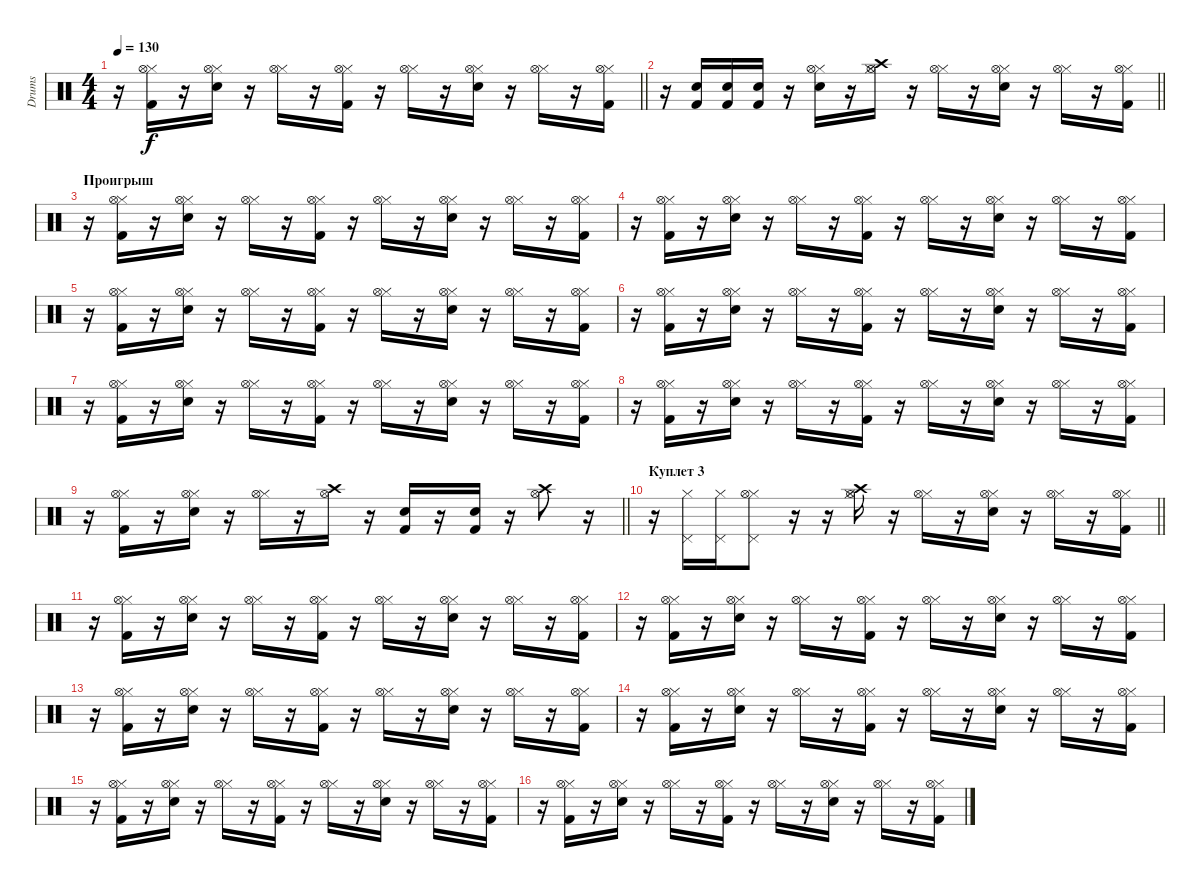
\track ("Drums" "Drums") {instrument percussion}
\staff {score}
\articulation defaults
\ts (4 4)
\tempo 130
\clef neutral
\barLineRight lightlight
\ks c
r.16{dy f} ("Kick (hit) 2" "Hi-Hat (closed)" "Hi-Hat (open)").16 r.16 ("Snare (hit) 2" "Hi-Hat (closed)" "Hi-Hat (open)").16 r.16 ("Hi-Hat (closed)" "Hi-Hat (open)").16 r.16 ("Kick (hit) 2" "Hi-Hat (closed)" "Hi-Hat (open)").16 r.16 ("Hi-Hat (closed)" "Hi-Hat (open)").16 r.16 ("Snare (hit) 2" "Hi-Hat (closed)" "Hi-Hat (open)").16 r.16 ("Hi-Hat (closed)" "Hi-Hat (open)").16 r.16 ("Kick (hit) 2" "Hi-Hat (closed)" "Hi-Hat (open)").16 |
\barLineRight lightlight
r.16 ("Snare (hit) 2" "Kick (hit) 2").16 ("Snare (hit) 2" "Kick (hit) 2").16 ("Snare (hit) 2" "Kick (hit) 2").16 r.16 ("Snare (hit) 2" "Hi-Hat (closed)" "Hi-Hat (open)").16 r.16 ("Crash high (hit)" "Hi-Hat (closed)" "Hi-Hat (open)").16 r.16 ("Hi-Hat (closed)" "Hi-Hat (open)").16 r.16 ("Snare (hit) 2" "Hi-Hat (closed)" "Hi-Hat (open)").16 r.16 ("Hi-Hat (closed)" "Hi-Hat (open)").16 r.16 ("Kick (hit) 2" "Hi-Hat (closed)" "Hi-Hat (open)").16 |
\section ("" "Проигрыш")
r.16 ("Kick (hit) 2" "Hi-Hat (closed)" "Hi-Hat (open)").16 r.16 ("Snare (hit) 2" "Hi-Hat (closed)" "Hi-Hat (open)").16 r.16 ("Hi-Hat (closed)" "Hi-Hat (open)").16 r.16 ("Kick (hit) 2" "Hi-Hat (closed)" "Hi-Hat (open)").16 r.16 ("Hi-Hat (closed)" "Hi-Hat (open)").16 r.16 ("Snare (hit) 2" "Hi-Hat (closed)" "Hi-Hat (open)").16 r.16 ("Hi-Hat (closed)" "Hi-Hat (open)").16 r.16 ("Kick (hit) 2" "Hi-Hat (closed)" "Hi-Hat (open)").16 |
r.16 ("Kick (hit) 2" "Hi-Hat (closed)" "Hi-Hat (open)").16 r.16 ("Snare (hit) 2" "Hi-Hat (closed)" "Hi-Hat (open)").16 r.16 ("Hi-Hat (closed)" "Hi-Hat (open)").16 r.16 ("Kick (hit) 2" "Hi-Hat (closed)" "Hi-Hat (open)").16 r.16 ("Hi-Hat (closed)" "Hi-Hat (open)").16 r.16 ("Snare (hit) 2" "Hi-Hat (closed)" "Hi-Hat (open)").16 r.16 ("Hi-Hat (closed)" "Hi-Hat (open)").16 r.16 ("Kick (hit) 2" "Hi-Hat (closed)" "Hi-Hat (open)").16 |
r.16 ("Kick (hit) 2" "Hi-Hat (closed)" "Hi-Hat (open)").16 r.16 ("Snare (hit) 2" "Hi-Hat (closed)" "Hi-Hat (open)").16 r.16 ("Hi-Hat (closed)" "Hi-Hat (open)").16 r.16 ("Kick (hit) 2" "Hi-Hat (closed)" "Hi-Hat (open)").16 r.16 ("Hi-Hat (closed)" "Hi-Hat (open)").16 r.16 ("Snare (hit) 2" "Hi-Hat (closed)" "Hi-Hat (open)").16 r.16 ("Hi-Hat (closed)" "Hi-Hat (open)").16 r.16 ("Kick (hit) 2" "Hi-Hat (closed)" "Hi-Hat (open)").16 |
r.16 ("Kick (hit) 2" "Hi-Hat (closed)" "Hi-Hat (open)").16 r.16 ("Snare (hit) 2" "Hi-Hat (closed)" "Hi-Hat (open)").16 r.16 ("Hi-Hat (closed)" "Hi-Hat (open)").16 r.16 ("Kick (hit) 2" "Hi-Hat (closed)" "Hi-Hat (open)").16 r.16 ("Hi-Hat (closed)" "Hi-Hat (open)").16 r.16 ("Snare (hit) 2" "Hi-Hat (closed)" "Hi-Hat (open)").16 r.16 ("Hi-Hat (closed)" "Hi-Hat (open)").16 r.16 ("Kick (hit) 2" "Hi-Hat (closed)" "Hi-Hat (open)").16 |
r.16 ("Kick (hit) 2" "Hi-Hat (closed)" "Hi-Hat (open)").16 r.16 ("Snare (hit) 2" "Hi-Hat (closed)" "Hi-Hat (open)").16 r.16 ("Hi-Hat (closed)" "Hi-Hat (open)").16 r.16 ("Kick (hit) 2" "Hi-Hat (closed)" "Hi-Hat (open)").16 r.16 ("Hi-Hat (closed)" "Hi-Hat (open)").16 r.16 ("Snare (hit) 2" "Hi-Hat (closed)" "Hi-Hat (open)").16 r.16 ("Hi-Hat (closed)" "Hi-Hat (open)").16 r.16 ("Kick (hit) 2" "Hi-Hat (closed)" "Hi-Hat (open)").16 |
r.16 ("Kick (hit) 2" "Hi-Hat (closed)" "Hi-Hat (open)").16 r.16 ("Snare (hit) 2" "Hi-Hat (closed)" "Hi-Hat (open)").16 r.16 ("Hi-Hat (closed)" "Hi-Hat (open)").16 r.16 ("Kick (hit) 2" "Hi-Hat (closed)" "Hi-Hat (open)").16 r.16 ("Hi-Hat (closed)" "Hi-Hat (open)").16 r.16 ("Snare (hit) 2" "Hi-Hat (closed)" "Hi-Hat (open)").16 r.16 ("Hi-Hat (closed)" "Hi-Hat (open)").16 r.16 ("Kick (hit) 2" "Hi-Hat (closed)" "Hi-Hat (open)").16 |
\barLineRight lightlight
r.16 ("Kick (hit) 2" "Hi-Hat (closed)" "Hi-Hat (open)").16 r.16 ("Snare (hit) 2" "Hi-Hat (closed)" "Hi-Hat (open)").16 r.16 ("Hi-Hat (closed)" "Hi-Hat (open)").16 r.16 ("Crash high (hit)" "Hi-Hat (open)").16 r.16 ("Snare (hit) 2" "Kick (hit) 2").16 r.16 ("Snare (hit) 2" "Kick (hit) 2").16 r.16 ("Crash high (hit)" "Hi-Hat (open)").8 r.16 |
\section ("" "Куплет 3")
\barLineRight lightlight
r.16 ("Hi-Hat (closed)" "Pedal Hi-Hat (hit)").16 ("Hi-Hat (closed)" "Pedal Hi-Hat (hit)").16 ("Pedal Hi-Hat (hit)" "Hi-Hat (closed)" "Hi-Hat (open)").8 r.16 r.16 ("Crash high (hit)" "Hi-Hat (closed)" "Hi-Hat (open)").16 r.16 ("Hi-Hat (closed)" "Hi-Hat (open)").16 r.16 ("Snare (hit) 2" "Hi-Hat (closed)" "Hi-Hat (open)").16 r.16 ("Hi-Hat (closed)" "Hi-Hat (open)").16 r.16 ("Kick (hit) 2" "Hi-Hat (closed)" "Hi-Hat (open)").16 |
\section ("" "")
r.16 ("Kick (hit) 2" "Hi-Hat (closed)" "Hi-Hat (open)").16 r.16 ("Snare (hit) 2" "Hi-Hat (closed)" "Hi-Hat (open)").16 r.16 ("Hi-Hat (closed)" "Hi-Hat (open)").16 r.16 ("Kick (hit) 2" "Hi-Hat (closed)" "Hi-Hat (open)").16 r.16 ("Hi-Hat (closed)" "Hi-Hat (open)").16 r.16 ("Snare (hit) 2" "Hi-Hat (closed)" "Hi-Hat (open)").16 r.16 ("Hi-Hat (closed)" "Hi-Hat (open)").16 r.16 ("Kick (hit) 2" "Hi-Hat (closed)" "Hi-Hat (open)").16 |
r.16 ("Kick (hit) 2" "Hi-Hat (closed)" "Hi-Hat (open)").16 r.16 ("Snare (hit) 2" "Hi-Hat (closed)" "Hi-Hat (open)").16 r.16 ("Hi-Hat (closed)" "Hi-Hat (open)").16 r.16 ("Kick (hit) 2" "Hi-Hat (closed)" "Hi-Hat (open)").16 r.16 ("Hi-Hat (closed)" "Hi-Hat (open)").16 r.16 ("Snare (hit) 2" "Hi-Hat (closed)" "Hi-Hat (open)").16 r.16 ("Hi-Hat (closed)" "Hi-Hat (open)").16 r.16 ("Kick (hit) 2" "Hi-Hat (closed)" "Hi-Hat (open)").16 |
r.16 ("Kick (hit) 2" "Hi-Hat (closed)" "Hi-Hat (open)").16 r.16 ("Snare (hit) 2" "Hi-Hat (closed)" "Hi-Hat (open)").16 r.16 ("Hi-Hat (closed)" "Hi-Hat (open)").16 r.16 ("Kick (hit) 2" "Hi-Hat (closed)" "Hi-Hat (open)").16 r.16 ("Hi-Hat (closed)" "Hi-Hat (open)").16 r.16 ("Snare (hit) 2" "Hi-Hat (closed)" "Hi-Hat (open)").16 r.16 ("Hi-Hat (closed)" "Hi-Hat (open)").16 r.16 ("Kick (hit) 2" "Hi-Hat (closed)" "Hi-Hat (open)").16 |
r.16 ("Kick (hit) 2" "Hi-Hat (closed)" "Hi-Hat (open)").16 r.16 ("Snare (hit) 2" "Hi-Hat (closed)" "Hi-Hat (open)").16 r.16 ("Hi-Hat (closed)" "Hi-Hat (open)").16 r.16 ("Kick (hit) 2" "Hi-Hat (closed)" "Hi-Hat (open)").16 r.16 ("Hi-Hat (closed)" "Hi-Hat (open)").16 r.16 ("Snare (hit) 2" "Hi-Hat (closed)" "Hi-Hat (open)").16 r.16 ("Hi-Hat (closed)" "Hi-Hat (open)").16 r.16 ("Kick (hit) 2" "Hi-Hat (closed)" "Hi-Hat (open)").16 |
r.16 ("Kick (hit) 2" "Hi-Hat (closed)" "Hi-Hat (open)").16 r.16 ("Snare (hit) 2" "Hi-Hat (closed)" "Hi-Hat (open)").16 r.16 ("Hi-Hat (closed)" "Hi-Hat (open)").16 r.16 ("Kick (hit) 2" "Hi-Hat (closed)" "Hi-Hat (open)").16 r.16 ("Hi-Hat (closed)" "Hi-Hat (open)").16 r.16 ("Snare (hit) 2" "Hi-Hat (closed)" "Hi-Hat (open)").16 r.16 ("Hi-Hat (closed)" "Hi-Hat (open)").16 r.16 ("Kick (hit) 2" "Hi-Hat (closed)" "Hi-Hat (open)").16 |
r.16 ("Kick (hit) 2" "Hi-Hat (closed)" "Hi-Hat (open)").16 r.16 ("Snare (hit) 2" "Hi-Hat (closed)" "Hi-Hat (open)").16 r.16 ("Hi-Hat (closed)" "Hi-Hat (open)").16 r.16 ("Kick (hit) 2" "Hi-Hat (closed)" "Hi-Hat (open)").16 r.16 ("Hi-Hat (closed)" "Hi-Hat (open)").16 r.16 ("Snare (hit) 2" "Hi-Hat (closed)" "Hi-Hat (open)").16 r.16 ("Hi-Hat (closed)" "Hi-Hat (open)").16 r.16 ("Kick (hit) 2" "Hi-Hat (closed)" "Hi-Hat (open)").16
